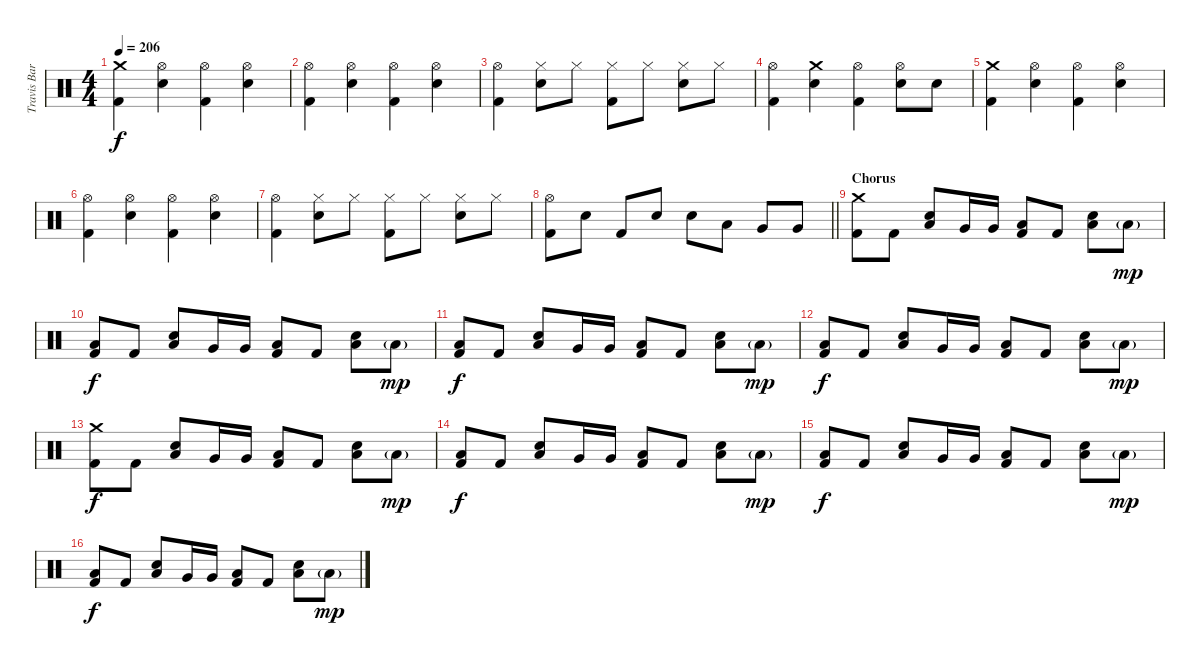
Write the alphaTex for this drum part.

\track ("Travis Barker - Drums" "Travis Bar") {instrument percussion}
\staff {score}
\articulation defaults
\ts (4 4)
\tempo 206
\clef neutral
\ks c
("Crash medium (hit)" "Kick (hit) 2").4{dy f} ("Hi-Hat (open)" "Electric Snare (hit)").4 ("Hi-Hat (open)" "Kick (hit) 2").4 ("Hi-Hat (open)" "Electric Snare (hit)").4 |
("Hi-Hat (open)" "Kick (hit) 2").4 ("Hi-Hat (open)" "Electric Snare (hit)").4 ("Hi-Hat (open)" "Kick (hit) 2").4 ("Hi-Hat (open)" "Electric Snare (hit)").4 |
("Hi-Hat (open)" "Kick (hit) 2").4 ("Hi-Hat (closed)" "Electric Snare (hit)").8 "Hi-Hat (closed)".8 ("Hi-Hat (closed)" "Kick (hit) 2").8 "Hi-Hat (closed)".8 ("Hi-Hat (closed)" "Electric Snare (hit)").8 "Hi-Hat (closed)".8 |
("Hi-Hat (open)" "Kick (hit) 2").4 ("Crash medium (hit)" "Electric Snare (hit)").4 ("Hi-Hat (open)" "Kick (hit) 2").4 ("Hi-Hat (open)" "Electric Snare (hit)").8 "Electric Snare (hit)".8 |
("Crash medium (hit)" "Kick (hit) 2").4 ("Hi-Hat (open)" "Electric Snare (hit)").4 ("Hi-Hat (open)" "Kick (hit) 2").4 ("Hi-Hat (open)" "Electric Snare (hit)").4 |
("Hi-Hat (open)" "Kick (hit) 2").4 ("Hi-Hat (open)" "Electric Snare (hit)").4 ("Hi-Hat (open)" "Kick (hit) 2").4 ("Hi-Hat (open)" "Electric Snare (hit)").4 |
("Hi-Hat (open)" "Kick (hit) 2").4 ("Hi-Hat (closed)" "Electric Snare (hit)").8 "Hi-Hat (closed)".8 ("Hi-Hat (closed)" "Kick (hit) 2").8 "Hi-Hat (closed)".8 ("Hi-Hat (closed)" "Electric Snare (hit)").8 "Hi-Hat (closed)".8 |
\barLineRight lightlight
("Hi-Hat (open)" "Kick (hit) 2").8 "Electric Snare (hit)".8 "Kick (hit) 2".8 "Electric Snare (hit)".8 "Electric Snare (hit)".8 "Low Tom (hit)".8 "Very Low Tom (hit)".8 "Very Low Tom (hit)".8 |
\section ("" "Chorus")
("Crash medium (hit)" "Kick (hit) 2").8 "Kick (hit) 2".8 ("Low Floor Tom (hit)" "Electric Snare (hit)").8 "Very Low Tom (hit)".16 "Very Low Tom (hit)".16 ("Low Floor Tom (hit)" "Kick (hit) 2").8 "Kick (hit) 2".8 ("Low Floor Tom (hit)" "Electric Snare (hit)").8 "Low Floor Tom (hit)"{g}.8{dy mp} |
("Low Floor Tom (hit)" "Kick (hit) 2").8{dy f} "Kick (hit) 2".8 ("Low Floor Tom (hit)" "Electric Snare (hit)").8 "Very Low Tom (hit)".16 "Very Low Tom (hit)".16 ("Low Floor Tom (hit)" "Kick (hit) 2").8 "Kick (hit) 2".8 ("Low Floor Tom (hit)" "Electric Snare (hit)").8 "Low Floor Tom (hit)"{g}.8{dy mp} |
("Low Floor Tom (hit)" "Kick (hit) 2").8{dy f} "Kick (hit) 2".8 ("Low Floor Tom (hit)" "Electric Snare (hit)").8 "Very Low Tom (hit)".16 "Very Low Tom (hit)".16 ("Low Floor Tom (hit)" "Kick (hit) 2").8 "Kick (hit) 2".8 ("Low Floor Tom (hit)" "Electric Snare (hit)").8 "Low Floor Tom (hit)"{g}.8{dy mp} |
("Low Floor Tom (hit)" "Kick (hit) 2").8{dy f} "Kick (hit) 2".8 ("Low Floor Tom (hit)" "Electric Snare (hit)").8 "Very Low Tom (hit)".16 "Very Low Tom (hit)".16 ("Low Floor Tom (hit)" "Kick (hit) 2").8 "Kick (hit) 2".8 ("Low Floor Tom (hit)" "Electric Snare (hit)").8 "Low Floor Tom (hit)"{g}.8{dy mp} |
("Crash medium (hit)" "Kick (hit) 2").8{dy f} "Kick (hit) 2".8 ("Low Floor Tom (hit)" "Electric Snare (hit)").8 "Very Low Tom (hit)".16 "Very Low Tom (hit)".16 ("Low Floor Tom (hit)" "Kick (hit) 2").8 "Kick (hit) 2".8 ("Low Floor Tom (hit)" "Electric Snare (hit)").8 "Low Floor Tom (hit)"{g}.8{dy mp} |
("Low Floor Tom (hit)" "Kick (hit) 2").8{dy f} "Kick (hit) 2".8 ("Low Floor Tom (hit)" "Electric Snare (hit)").8 "Very Low Tom (hit)".16 "Very Low Tom (hit)".16 ("Low Floor Tom (hit)" "Kick (hit) 2").8 "Kick (hit) 2".8 ("Low Floor Tom (hit)" "Electric Snare (hit)").8 "Low Floor Tom (hit)"{g}.8{dy mp} |
("Low Floor Tom (hit)" "Kick (hit) 2").8{dy f} "Kick (hit) 2".8 ("Low Floor Tom (hit)" "Electric Snare (hit)").8 "Very Low Tom (hit)".16 "Very Low Tom (hit)".16 ("Low Floor Tom (hit)" "Kick (hit) 2").8 "Kick (hit) 2".8 ("Low Floor Tom (hit)" "Electric Snare (hit)").8 "Low Floor Tom (hit)"{g}.8{dy mp} |
("Low Floor Tom (hit)" "Kick (hit) 2").8{dy f} "Kick (hit) 2".8 ("Low Floor Tom (hit)" "Electric Snare (hit)").8 "Very Low Tom (hit)".16 "Very Low Tom (hit)".16 ("Low Floor Tom (hit)" "Kick (hit) 2").8 "Kick (hit) 2".8 ("Low Floor Tom (hit)" "Electric Snare (hit)").8 "Low Floor Tom (hit)"{g}.8{dy mp}
